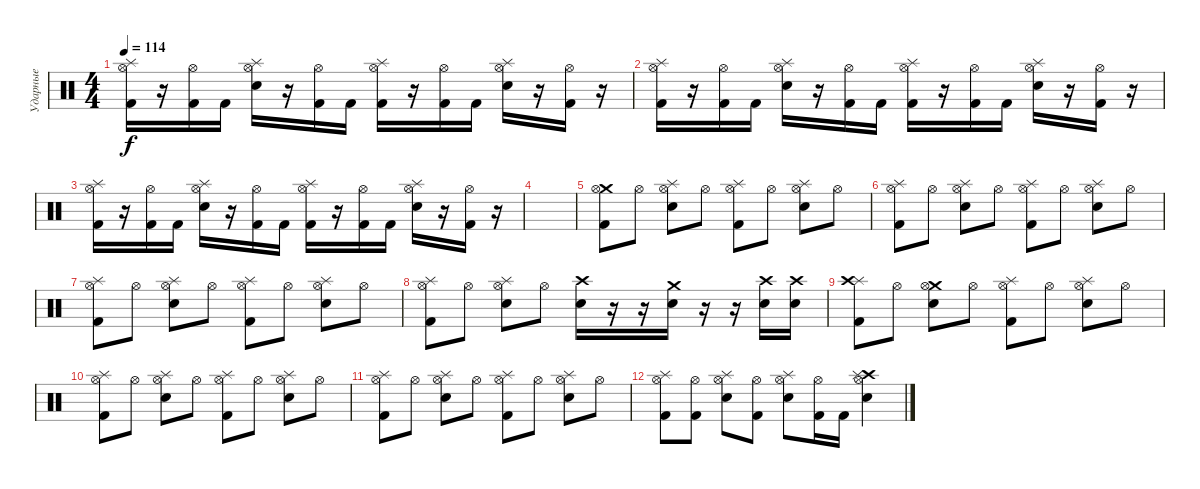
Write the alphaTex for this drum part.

\track ("Ударные" "Ударные") {instrument percussion}
\staff {score}
\articulation defaults
\ts (4 4)
\tempo 114
\clef neutral
\ks c
("Splash (hit)" "Hi-Hat (open)" "Kick (hit) 2").16{dy f} r.16 ("Hi-Hat (open)" "Kick (hit) 2").16 "Kick (hit) 2".16 ("Splash (hit)" "Hi-Hat (open)" "Snare (hit) 2").16 r.16 ("Hi-Hat (open)" "Kick (hit) 2").16 "Kick (hit) 2".16 ("Splash (hit)" "Hi-Hat (open)" "Kick (hit) 2").16 r.16 ("Hi-Hat (open)" "Kick (hit) 2").16 "Kick (hit) 2".16 ("Splash (hit)" "Hi-Hat (open)" "Snare (hit) 2").16 r.16 ("Hi-Hat (open)" "Kick (hit) 2").16 r.16 |
("Splash (hit)" "Hi-Hat (open)" "Kick (hit) 2").16 r.16 ("Hi-Hat (open)" "Kick (hit) 2").16 "Kick (hit) 2".16 ("Splash (hit)" "Hi-Hat (open)" "Snare (hit) 2").16 r.16 ("Hi-Hat (open)" "Kick (hit) 2").16 "Kick (hit) 2".16 ("Splash (hit)" "Hi-Hat (open)" "Kick (hit) 2").16 r.16 ("Hi-Hat (open)" "Kick (hit) 2").16 "Kick (hit) 2".16 ("Splash (hit)" "Hi-Hat (open)" "Snare (hit) 2").16 r.16 ("Hi-Hat (open)" "Kick (hit) 2").16 r.16 |
("Splash (hit)" "Hi-Hat (open)" "Kick (hit) 2").16 r.16 ("Hi-Hat (open)" "Kick (hit) 2").16 "Kick (hit) 2".16 ("Splash (hit)" "Hi-Hat (open)" "Snare (hit) 2").16 r.16 ("Hi-Hat (open)" "Kick (hit) 2").16 "Kick (hit) 2".16 ("Splash (hit)" "Hi-Hat (open)" "Kick (hit) 2").16 r.16 ("Hi-Hat (open)" "Kick (hit) 2").16 "Kick (hit) 2".16 ("Splash (hit)" "Hi-Hat (open)" "Snare (hit) 2").16 r.16 ("Hi-Hat (open)" "Kick (hit) 2").16 r.16 |
|
("Crash medium (hit)" "Hi-Hat (open)" "Kick (hit) 2").8 "Hi-Hat (open)".8 ("Splash (hit)" "Hi-Hat (open)" "Snare (hit) 2").8 "Hi-Hat (open)".8 ("Splash (hit)" "Hi-Hat (open)" "Kick (hit) 2").8 "Hi-Hat (open)".8 ("Splash (hit)" "Hi-Hat (open)" "Snare (hit) 2").8 "Hi-Hat (open)".8 |
("Splash (hit)" "Hi-Hat (open)" "Kick (hit) 2").8 "Hi-Hat (open)".8 ("Splash (hit)" "Hi-Hat (open)" "Snare (hit) 2").8 "Hi-Hat (open)".8 ("Splash (hit)" "Hi-Hat (open)" "Kick (hit) 2").8 "Hi-Hat (open)".8 ("Splash (hit)" "Hi-Hat (open)" "Snare (hit) 2").8 "Hi-Hat (open)".8 |
("Splash (hit)" "Hi-Hat (open)" "Kick (hit) 2").8 "Hi-Hat (open)".8 ("Splash (hit)" "Hi-Hat (open)" "Snare (hit) 2").8 "Hi-Hat (open)".8 ("Splash (hit)" "Hi-Hat (open)" "Kick (hit) 2").8 "Hi-Hat (open)".8 ("Splash (hit)" "Hi-Hat (open)" "Snare (hit) 2").8 "Hi-Hat (open)".8 |
("Splash (hit)" "Hi-Hat (open)" "Kick (hit) 2").8 "Hi-Hat (open)".8 ("Splash (hit)" "Hi-Hat (open)" "Snare (hit) 2").8 "Hi-Hat (open)".8 ("Snare (hit) 2" "Crash high (hit)").16 r.16 r.16 ("Snare (hit) 2" "Crash medium (hit)").16 r.16 r.16 ("Snare (hit) 2" "Crash high (hit)").16 ("Snare (hit) 2" "Crash high (hit)").16 |
("Splash (hit)" "Crash high (hit)" "Kick (hit) 2").8 "Hi-Hat (open)".8 ("Crash medium (hit)" "Hi-Hat (open)" "Snare (hit) 2").8 "Hi-Hat (open)".8 ("Splash (hit)" "Hi-Hat (open)" "Kick (hit) 2").8 "Hi-Hat (open)".8 ("Splash (hit)" "Hi-Hat (open)" "Snare (hit) 2").8 "Hi-Hat (open)".8 |
("Splash (hit)" "Hi-Hat (open)" "Kick (hit) 2").8 "Hi-Hat (open)".8 ("Splash (hit)" "Hi-Hat (open)" "Snare (hit) 2").8 "Hi-Hat (open)".8 ("Splash (hit)" "Hi-Hat (open)" "Kick (hit) 2").8 "Hi-Hat (open)".8 ("Splash (hit)" "Hi-Hat (open)" "Snare (hit) 2").8 "Hi-Hat (open)".8 |
("Splash (hit)" "Hi-Hat (open)" "Kick (hit) 2").8 "Hi-Hat (open)".8 ("Splash (hit)" "Hi-Hat (open)" "Snare (hit) 2").8 "Hi-Hat (open)".8 ("Splash (hit)" "Hi-Hat (open)" "Kick (hit) 2").8 "Hi-Hat (open)".8 ("Splash (hit)" "Hi-Hat (open)" "Snare (hit) 2").8 "Hi-Hat (open)".8 |
("Splash (hit)" "Hi-Hat (open)" "Kick (hit) 2").8 ("Hi-Hat (open)" "Kick (hit) 2").8 ("Splash (hit)" "Hi-Hat (open)" "Snare (hit) 2").8 ("Hi-Hat (open)" "Kick (hit) 2").8 ("Splash (hit)" "Hi-Hat (open)" "Snare (hit) 2").8 ("Hi-Hat (open)" "Kick (hit) 2").16 "Kick (hit) 2".16 ("Crash high (hit)" "Splash (hit)" "Hi-Hat (open)" "Snare (hit) 2").4
